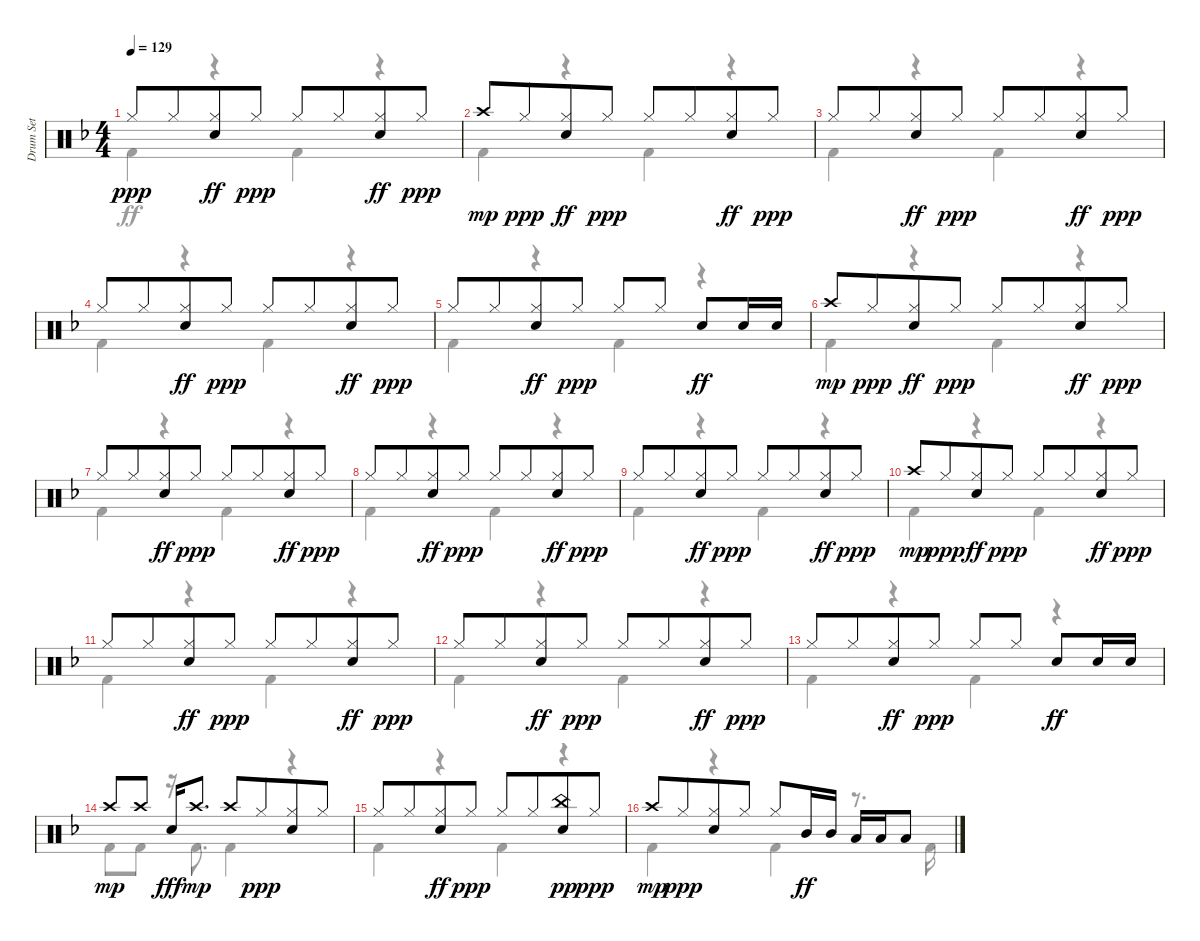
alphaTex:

\track ("Drum Set" "Drum Set") {instrument percussion}
\staff {score}
\articulation defaults
\voice
\ts (4 4)
\tempo 129
\clef neutral
\ks dminor "Hi-Hat (closed)".8{dy ppp} "Hi-Hat (closed)".8{beam merge}
("Hi-Hat (closed)" "Electric Snare (hit)").8{dy ff} "Hi-Hat (closed)".8{dy ppp} "Hi-Hat (closed)".8 "Hi-Hat (closed)".8{beam merge} ("Hi-Hat (closed)" "Electric Snare (hit)").8{dy ff} "Hi-Hat (closed)".8{dy ppp} |
"Crash high (hit)".8{dy mp} "Hi-Hat (closed)".8{dy ppp beam merge} ("Hi-Hat (closed)" "Electric Snare (hit)").8{dy ff} "Hi-Hat (closed)".8{dy ppp} "Hi-Hat (closed)".8 "Hi-Hat (closed)".8{beam merge} ("Hi-Hat (closed)" "Electric Snare (hit)").8{dy ff} "Hi-Hat (closed)".8{dy ppp} |
"Hi-Hat (closed)".8 "Hi-Hat (closed)".8{beam merge} ("Hi-Hat (closed)" "Electric Snare (hit)").8{dy ff} "Hi-Hat (closed)".8{dy ppp} "Hi-Hat (closed)".8 "Hi-Hat (closed)".8{beam merge} ("Hi-Hat (closed)" "Electric Snare (hit)").8{dy ff} "Hi-Hat (closed)".8{dy ppp} |
"Hi-Hat (closed)".8 "Hi-Hat (closed)".8{beam merge} ("Hi-Hat (closed)" "Electric Snare (hit)").8{dy ff} "Hi-Hat (closed)".8{dy ppp} "Hi-Hat (closed)".8 "Hi-Hat (closed)".8{beam merge} ("Hi-Hat (closed)" "Electric Snare (hit)").8{dy ff} "Hi-Hat (closed)".8{dy ppp} |
"Hi-Hat (closed)".8 "Hi-Hat (closed)".8{beam merge} ("Hi-Hat (closed)" "Electric Snare (hit)").8{dy ff} "Hi-Hat (closed)".8{dy ppp} "Hi-Hat (closed)".8 "Hi-Hat (closed)".8 "Electric Snare (hit)".8{dy ff} "Electric Snare (hit)".16 "Electric Snare (hit)".16 |
"Crash high (hit)".8{dy mp} "Hi-Hat (closed)".8{dy ppp beam merge} ("Hi-Hat (closed)" "Electric Snare (hit)").8{dy ff} "Hi-Hat (closed)".8{dy ppp} "Hi-Hat (closed)".8 "Hi-Hat (closed)".8{beam merge} ("Hi-Hat (closed)" "Electric Snare (hit)").8{dy ff} "Hi-Hat (closed)".8{dy ppp} |
"Hi-Hat (closed)".8 "Hi-Hat (closed)".8{beam merge} ("Hi-Hat (closed)" "Electric Snare (hit)").8{dy ff} "Hi-Hat (closed)".8{dy ppp} "Hi-Hat (closed)".8 "Hi-Hat (closed)".8{beam merge} ("Hi-Hat (closed)" "Electric Snare (hit)").8{dy ff} "Hi-Hat (closed)".8{dy ppp} |
"Hi-Hat (closed)".8 "Hi-Hat (closed)".8{beam merge} ("Hi-Hat (closed)" "Electric Snare (hit)").8{dy ff} "Hi-Hat (closed)".8{dy ppp} "Hi-Hat (closed)".8 "Hi-Hat (closed)".8{beam merge} ("Hi-Hat (closed)" "Electric Snare (hit)").8{dy ff} "Hi-Hat (closed)".8{dy ppp} |
"Hi-Hat (closed)".8 "Hi-Hat (closed)".8{beam merge} ("Hi-Hat (closed)" "Electric Snare (hit)").8{dy ff} "Hi-Hat (closed)".8{dy ppp} "Hi-Hat (closed)".8 "Hi-Hat (closed)".8{beam merge} ("Hi-Hat (closed)" "Electric Snare (hit)").8{dy ff} "Hi-Hat (closed)".8{dy ppp} |
"Crash high (hit)".8{dy mp} "Hi-Hat (closed)".8{dy ppp beam merge} ("Hi-Hat (closed)" "Electric Snare (hit)").8{dy ff} "Hi-Hat (closed)".8{dy ppp} "Hi-Hat (closed)".8 "Hi-Hat (closed)".8{beam merge} ("Hi-Hat (closed)" "Electric Snare (hit)").8{dy ff} "Hi-Hat (closed)".8{dy ppp} |
"Hi-Hat (closed)".8 "Hi-Hat (closed)".8{beam merge} ("Hi-Hat (closed)" "Electric Snare (hit)").8{dy ff} "Hi-Hat (closed)".8{dy ppp} "Hi-Hat (closed)".8 "Hi-Hat (closed)".8{beam merge} ("Hi-Hat (closed)" "Electric Snare (hit)").8{dy ff} "Hi-Hat (closed)".8{dy ppp} |
"Hi-Hat (closed)".8 "Hi-Hat (closed)".8{beam merge} ("Hi-Hat (closed)" "Electric Snare (hit)").8{dy ff} "Hi-Hat (closed)".8{dy ppp} "Hi-Hat (closed)".8 "Hi-Hat (closed)".8{beam merge} ("Hi-Hat (closed)" "Electric Snare (hit)").8{dy ff} "Hi-Hat (closed)".8{dy ppp} |
"Hi-Hat (closed)".8 "Hi-Hat (closed)".8{beam merge} ("Hi-Hat (closed)" "Electric Snare (hit)").8{dy ff} "Hi-Hat (closed)".8{dy ppp} "Hi-Hat (closed)".8 "Hi-Hat (closed)".8 "Electric Snare (hit)".8{dy ff} "Electric Snare (hit)".16 "Electric Snare (hit)".16 |
"Crash high (hit)".8{dy mp} "Crash high (hit)".8 "Electric Snare (hit)".16{dy fff} "Crash high (hit)".8{d dy mp} "Crash high (hit)".8 "Hi-Hat (closed)".8{dy ppp beam merge} ("Electric Snare (hit)" "Hi-Hat (closed)").8 "Hi-Hat (closed)".8 |
"Hi-Hat (closed)".8 "Hi-Hat (closed)".8{beam merge} ("Hi-Hat (closed)" "Electric Snare (hit)").8{dy ff} "Hi-Hat (closed)".8{dy ppp} "Hi-Hat (closed)".8 "Hi-Hat (closed)".8{beam merge} ("Electric Snare (hit)" "China (hit)").8{dy pp} "Hi-Hat (closed)".8{dy ppp} |
"Crash high (hit)".8{dy mp} "Hi-Hat (closed)".8{dy ppp beam merge} ("Electric Snare (hit)" "Hi-Hat (closed)").8 "Hi-Hat (closed)".8 "Hi-Hat (closed)".8 "Mid Tom (hit)".16{dy ff} "Mid Tom (hit)".16 "Low Tom (hit)".16 "Low Tom (hit)".16 "Low Tom (hit)".8
\voice
\clef neutral
\ottava regular
\simile none
\ks dminor "Kick (hit) 2".4{dy ff}
r.4 "Kick (hit) 2".4 r.4 |
"Kick (hit) 2".4 r.4 "Kick (hit) 2".4 r.4 |
"Kick (hit) 2".4 r.4 "Kick (hit) 2".4 r.4 |
"Kick (hit) 2".4 r.4 "Kick (hit) 2".4 r.4 |
"Kick (hit) 2".4 r.4 "Kick (hit) 2".4 r.4 |
"Kick (hit) 2".4 r.4 "Kick (hit) 2".4 r.4 |
"Kick (hit) 2".4 r.4 "Kick (hit) 2".4 r.4 |
"Kick (hit) 2".4 r.4 "Kick (hit) 2".4 r.4 |
"Kick (hit) 2".4 r.4 "Kick (hit) 2".4 r.4 |
"Kick (hit) 2".4 r.4 "Kick (hit) 2".4 r.4 |
"Kick (hit) 2".4 r.4 "Kick (hit) 2".4 r.4 |
"Kick (hit) 2".4 r.4 "Kick (hit) 2".4 r.4 |
"Kick (hit) 2".4 r.4 "Kick (hit) 2".4 r.4 |
"Kick (hit) 2".8 "Kick (hit) 2".8 r.16 "Kick (hit) 2".8{d} "Kick (hit) 2".4 r.4 |
"Kick (hit) 2".4 r.4 "Kick (hit) 2".4 r.4 |
"Kick (hit) 2".4 r.4 "Kick (hit) 2".4 r.8{d} "Kick (hit) 2".16
